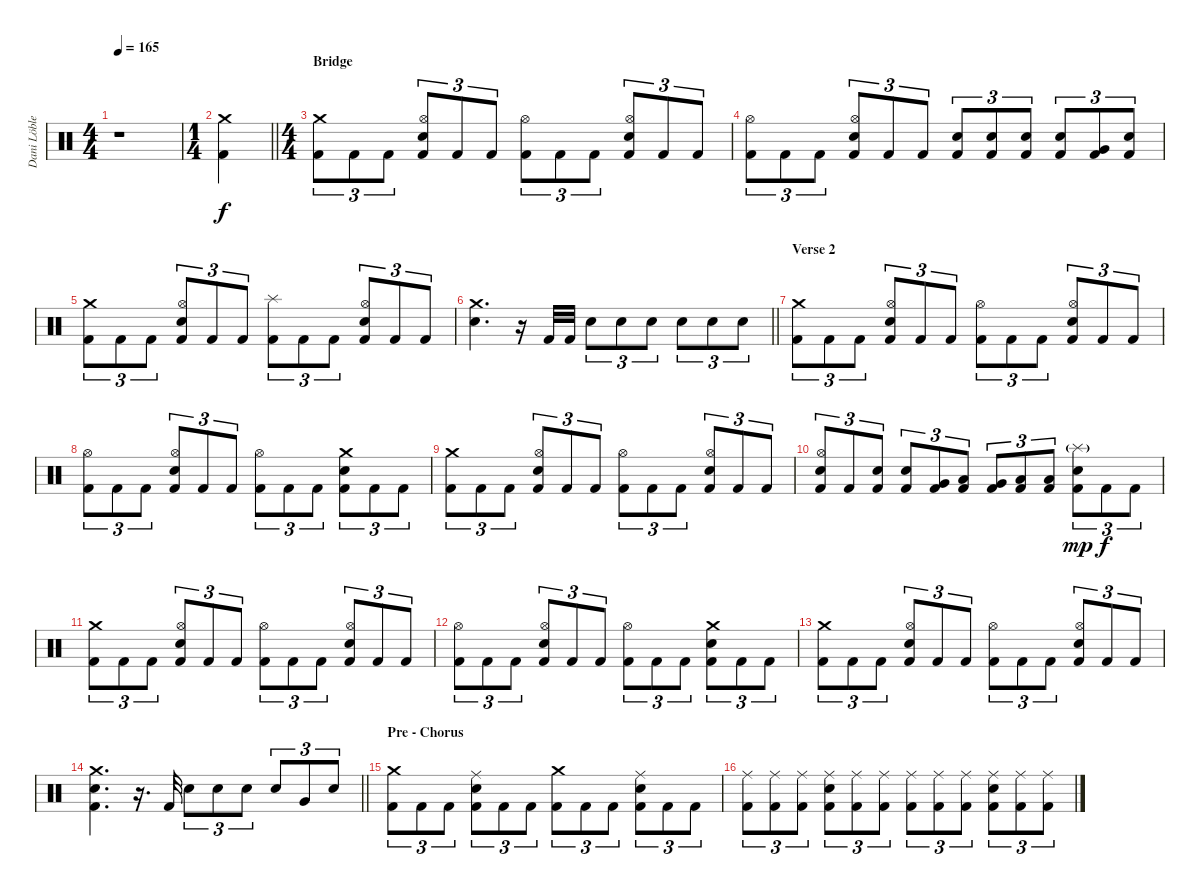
\track ("Dani Löble" "Dani Löble") {instrument percussion}
\staff {score}
\articulation defaults
\ts (4 4)
\tempo 165
\clef neutral
\ks c
r.1{dy f} |
\ts (1 4)
\barLineRight lightlight
("Crash medium (hit)" "Kick (hit) 2").4 |
\ts (4 4)
\section ("" "Bridge")
("Crash medium (hit)" "Kick (hit) 2").8{tu (3 2)} "Kick (hit) 2".8{tu (3 2)} "Kick (hit) 2".8{tu (3 2)} ("Hi-Hat (open)" "Electric Snare (hit)" "Kick (hit) 2").8{tu (3 2)} "Kick (hit) 2".8{tu (3 2)} "Kick (hit) 2".8{tu (3 2)} ("Hi-Hat (open)" "Kick (hit) 2").8{tu (3 2)} "Kick (hit) 2".8{tu (3 2)} "Kick (hit) 2".8{tu (3 2)} ("Hi-Hat (open)" "Electric Snare (hit)" "Kick (hit) 2").8{tu (3 2)} "Kick (hit) 2".8{tu (3 2)} "Kick (hit) 2".8{tu (3 2)} |
("Hi-Hat (open)" "Kick (hit) 2").8{tu (3 2)} "Kick (hit) 2".8{tu (3 2)} "Kick (hit) 2".8{tu (3 2)} ("Hi-Hat (open)" "Electric Snare (hit)" "Kick (hit) 2").8{tu (3 2)} "Kick (hit) 2".8{tu (3 2)} "Kick (hit) 2".8{tu (3 2)} ("Electric Snare (hit)" "Kick (hit) 2").8{tu (3 2)} ("Electric Snare (hit)" "Kick (hit) 2").8{tu (3 2)} ("Electric Snare (hit)" "Kick (hit) 2").8{tu (3 2)} ("Electric Snare (hit)" "Kick (hit) 2").8{tu (3 2)} ("Very Low Tom (hit)" "Kick (hit) 2").8{tu (3 2)} ("Electric Snare (hit)" "Kick (hit) 2").8{tu (3 2)} |
("Crash medium (hit)" "Kick (hit) 2").8{tu (3 2)} "Kick (hit) 2".8{tu (3 2)} "Kick (hit) 2".8{tu (3 2)} ("Hi-Hat (open)" "Electric Snare (hit)" "Kick (hit) 2").8{tu (3 2)} "Kick (hit) 2".8{tu (3 2)} "Kick (hit) 2".8{tu (3 2)} ("Splash (hit)" "Kick (hit) 2").8{tu (3 2)} "Kick (hit) 2".8{tu (3 2)} "Kick (hit) 2".8{tu (3 2)} ("Hi-Hat (open)" "Electric Snare (hit)" "Kick (hit) 2").8{tu (3 2)} "Kick (hit) 2".8{tu (3 2)} "Kick (hit) 2".8{tu (3 2)} |
\barLineRight lightlight
("Crash medium (hit)" "Electric Snare (hit)").4{d} r.16 "Kick (hit) 2".32 "Kick (hit) 2".32 "Electric Snare (hit)".8{tu (3 2)} "Electric Snare (hit)".8{tu (3 2)} "Electric Snare (hit)".8{tu (3 2)} "Electric Snare (hit)".8{tu (3 2)} "Electric Snare (hit)".8{tu (3 2)} "Electric Snare (hit)".8{tu (3 2)} |
\section ("" "Verse 2")
("Crash medium (hit)" "Kick (hit) 2").8{tu (3 2)} "Kick (hit) 2".8{tu (3 2)} "Kick (hit) 2".8{tu (3 2)} ("Hi-Hat (open)" "Electric Snare (hit)" "Kick (hit) 2").8{tu (3 2)} "Kick (hit) 2".8{tu (3 2)} "Kick (hit) 2".8{tu (3 2)} ("Hi-Hat (open)" "Kick (hit) 2").8{tu (3 2)} "Kick (hit) 2".8{tu (3 2)} "Kick (hit) 2".8{tu (3 2)} ("Hi-Hat (open)" "Electric Snare (hit)" "Kick (hit) 2").8{tu (3 2)} "Kick (hit) 2".8{tu (3 2)} "Kick (hit) 2".8{tu (3 2)} |
("Hi-Hat (open)" "Kick (hit) 2").8{tu (3 2)} "Kick (hit) 2".8{tu (3 2)} "Kick (hit) 2".8{tu (3 2)} ("Hi-Hat (open)" "Electric Snare (hit)" "Kick (hit) 2").8{tu (3 2)} "Kick (hit) 2".8{tu (3 2)} "Kick (hit) 2".8{tu (3 2)} ("Hi-Hat (open)" "Kick (hit) 2").8{tu (3 2)} "Kick (hit) 2".8{tu (3 2)} "Kick (hit) 2".8{tu (3 2)} ("Crash medium (hit)" "Electric Snare (hit)" "Kick (hit) 2").8{tu (3 2)} "Kick (hit) 2".8{tu (3 2)} "Kick (hit) 2".8{tu (3 2)} |
("Crash medium (hit)" "Kick (hit) 2").8{tu (3 2)} "Kick (hit) 2".8{tu (3 2)} "Kick (hit) 2".8{tu (3 2)} ("Hi-Hat (open)" "Electric Snare (hit)" "Kick (hit) 2").8{tu (3 2)} "Kick (hit) 2".8{tu (3 2)} "Kick (hit) 2".8{tu (3 2)} ("Hi-Hat (open)" "Kick (hit) 2").8{tu (3 2)} "Kick (hit) 2".8{tu (3 2)} "Kick (hit) 2".8{tu (3 2)} ("Hi-Hat (open)" "Electric Snare (hit)" "Kick (hit) 2").8{tu (3 2)} "Kick (hit) 2".8{tu (3 2)} "Kick (hit) 2".8{tu (3 2)} |
("Hi-Hat (open)" "Electric Snare (hit)" "Kick (hit) 2").8{tu (3 2)} "Kick (hit) 2".8{tu (3 2)} ("Electric Snare (hit)" "Kick (hit) 2").8{tu (3 2)} ("Electric Snare (hit)" "Kick (hit) 2").8{tu (3 2)} ("Very Low Tom (hit)" "Kick (hit) 2").8{tu (3 2)} ("Low Floor Tom (hit)" "Kick (hit) 2").8{tu (3 2)} ("Very Low Tom (hit)" "Kick (hit) 2").8{tu (3 2)} ("Low Floor Tom (hit)" "Kick (hit) 2").8{tu (3 2)} ("Low Floor Tom (hit)" "Kick (hit) 2").8{tu (3 2)} ("Splash (hit)"{g} "Electric Snare (hit)" "Kick (hit) 2").8{tu (3 2) dy mp} "Kick (hit) 2".8{tu (3 2) dy f} "Kick (hit) 2".8{tu (3 2)} |
("Crash medium (hit)" "Kick (hit) 2").8{tu (3 2)} "Kick (hit) 2".8{tu (3 2)} "Kick (hit) 2".8{tu (3 2)} ("Hi-Hat (open)" "Electric Snare (hit)" "Kick (hit) 2").8{tu (3 2)} "Kick (hit) 2".8{tu (3 2)} "Kick (hit) 2".8{tu (3 2)} ("Hi-Hat (open)" "Kick (hit) 2").8{tu (3 2)} "Kick (hit) 2".8{tu (3 2)} "Kick (hit) 2".8{tu (3 2)} ("Hi-Hat (open)" "Electric Snare (hit)" "Kick (hit) 2").8{tu (3 2)} "Kick (hit) 2".8{tu (3 2)} "Kick (hit) 2".8{tu (3 2)} |
("Hi-Hat (open)" "Kick (hit) 2").8{tu (3 2)} "Kick (hit) 2".8{tu (3 2)} "Kick (hit) 2".8{tu (3 2)} ("Hi-Hat (open)" "Electric Snare (hit)" "Kick (hit) 2").8{tu (3 2)} "Kick (hit) 2".8{tu (3 2)} "Kick (hit) 2".8{tu (3 2)} ("Hi-Hat (open)" "Kick (hit) 2").8{tu (3 2)} "Kick (hit) 2".8{tu (3 2)} "Kick (hit) 2".8{tu (3 2)} ("Crash medium (hit)" "Electric Snare (hit)" "Kick (hit) 2").8{tu (3 2)} "Kick (hit) 2".8{tu (3 2)} "Kick (hit) 2".8{tu (3 2)} |
("Crash medium (hit)" "Kick (hit) 2").8{tu (3 2)} "Kick (hit) 2".8{tu (3 2)} "Kick (hit) 2".8{tu (3 2)} ("Hi-Hat (open)" "Electric Snare (hit)" "Kick (hit) 2").8{tu (3 2)} "Kick (hit) 2".8{tu (3 2)} "Kick (hit) 2".8{tu (3 2)} ("Hi-Hat (open)" "Kick (hit) 2").8{tu (3 2)} "Kick (hit) 2".8{tu (3 2)} "Kick (hit) 2".8{tu (3 2)} ("Hi-Hat (open)" "Electric Snare (hit)" "Kick (hit) 2").8{tu (3 2)} "Kick (hit) 2".8{tu (3 2)} "Kick (hit) 2".8{tu (3 2)} |
\barLineRight lightlight
("Crash medium (hit)" "Electric Snare (hit)" "Kick (hit) 2").4{d} r.16{d} "Kick (hit) 2".32 "Electric Snare (hit)".8{tu (3 2)} "Electric Snare (hit)".8{tu (3 2)} "Electric Snare (hit)".8{tu (3 2)} "Electric Snare (hit)".8{tu (3 2)} "Very Low Tom (hit)".8{tu (3 2)} "Electric Snare (hit)".8{tu (3 2)} |
\section ("" "Pre - Chorus")
("Crash medium (hit)" "Kick (hit) 2").8{tu (3 2)} "Kick (hit) 2".8{tu (3 2)} "Kick (hit) 2".8{tu (3 2)} ("Ride (middle)" "Electric Snare (hit)" "Kick (hit) 2").8{tu (3 2)} "Kick (hit) 2".8{tu (3 2)} "Kick (hit) 2".8{tu (3 2)} ("Crash medium (hit)" "Kick (hit) 2").8{tu (3 2)} "Kick (hit) 2".8{tu (3 2)} "Kick (hit) 2".8{tu (3 2)} ("Ride (middle)" "Electric Snare (hit)" "Kick (hit) 2").8{tu (3 2)} "Kick (hit) 2".8{tu (3 2)} "Kick (hit) 2".8{tu (3 2)} |
("Ride (middle)" "Kick (hit) 2").8{tu (3 2)} ("Ride (middle)" "Kick (hit) 2").8{tu (3 2)} ("Ride (middle)" "Kick (hit) 2").8{tu (3 2)} ("Ride (middle)" "Electric Snare (hit)" "Kick (hit) 2").8{tu (3 2)} ("Ride (middle)" "Kick (hit) 2").8{tu (3 2)} ("Ride (middle)" "Kick (hit) 2").8{tu (3 2)} ("Ride (middle)" "Kick (hit) 2").8{tu (3 2)} ("Ride (middle)" "Kick (hit) 2").8{tu (3 2)} ("Ride (middle)" "Kick (hit) 2").8{tu (3 2)} ("Ride (middle)" "Electric Snare (hit)" "Kick (hit) 2").8{tu (3 2)} ("Ride (middle)" "Kick (hit) 2").8{tu (3 2)} ("Ride (middle)" "Kick (hit) 2").8{tu (3 2)}
